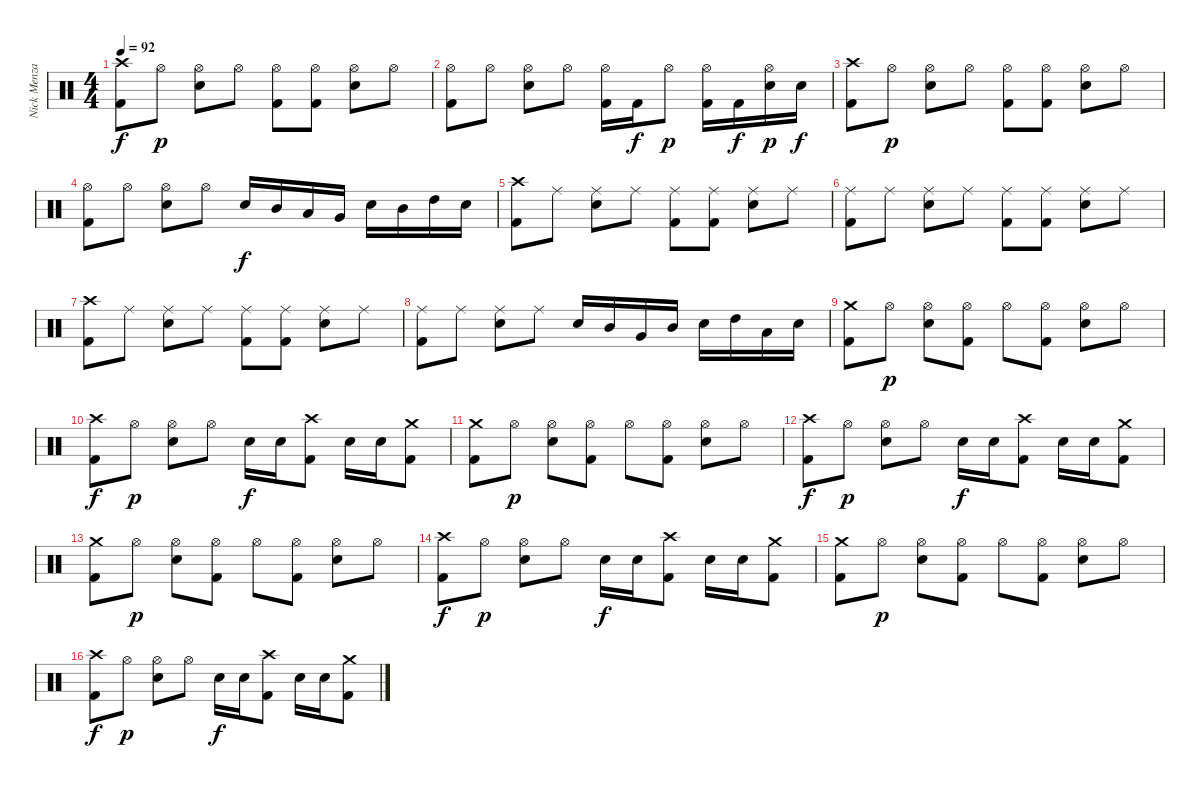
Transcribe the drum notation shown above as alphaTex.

\track ("Nick Menza" "Nick Menza") {instrument percussion}
\staff {score}
\articulation defaults
\ts (4 4)
\tempo 92
\clef neutral
\ks c
("Crash high (hit)" "Kick (hit) 2").8{dy f} "Hi-Hat (open)".8{dy p} ("Hi-Hat (open)" "Electric Snare (hit)").8 "Hi-Hat (open)".8 ("Hi-Hat (open)" "Kick (hit) 2").8 ("Hi-Hat (open)" "Kick (hit) 2").8 ("Hi-Hat (open)" "Electric Snare (hit)").8 "Hi-Hat (open)".8 |
("Hi-Hat (open)" "Kick (hit) 2").8 "Hi-Hat (open)".8 ("Hi-Hat (open)" "Electric Snare (hit)").8 "Hi-Hat (open)".8 ("Hi-Hat (open)" "Kick (hit) 2").16 "Kick (hit) 2".16{dy f} "Hi-Hat (open)".8{dy p} ("Hi-Hat (open)" "Kick (hit) 2").16 "Kick (hit) 2".16{dy f} ("Hi-Hat (open)" "Electric Snare (hit)").16{dy p} "Electric Snare (hit)".16{dy f} |
("Crash high (hit)" "Kick (hit) 2").8 "Hi-Hat (open)".8{dy p} ("Hi-Hat (open)" "Electric Snare (hit)").8 "Hi-Hat (open)".8 ("Hi-Hat (open)" "Kick (hit) 2").8 ("Hi-Hat (open)" "Kick (hit) 2").8 ("Hi-Hat (open)" "Electric Snare (hit)").8 "Hi-Hat (open)".8 |
("Hi-Hat (open)" "Kick (hit) 2").8 "Hi-Hat (open)".8 ("Hi-Hat (open)" "Electric Snare (hit)").8 "Hi-Hat (open)".8 "Electric Snare (hit)".16{dy f} "Mid Tom (hit)".16 "Low Tom (hit)".16 "Very Low Tom (hit)".16 "Electric Snare (hit)".16 "Mid Tom (hit)".16 "High Tom (hit)".16 "Electric Snare (hit)".16 |
("Crash high (hit)" "Kick (hit) 2").8 "Ride (middle)".8 ("Ride (middle)" "Electric Snare (hit)").8 "Ride (middle)".8 ("Ride (middle)" "Kick (hit) 2").8 ("Ride (middle)" "Kick (hit) 2").8 ("Ride (middle)" "Electric Snare (hit)").8 "Ride (middle)".8 |
("Ride (middle)" "Kick (hit) 2").8 "Ride (middle)".8 ("Ride (middle)" "Electric Snare (hit)").8 "Ride (middle)".8 ("Ride (middle)" "Kick (hit) 2").8 ("Ride (middle)" "Kick (hit) 2").8 ("Ride (middle)" "Electric Snare (hit)").8 "Ride (middle)".8 |
("Crash high (hit)" "Kick (hit) 2").8 "Ride (middle)".8 ("Ride (middle)" "Electric Snare (hit)").8 "Ride (middle)".8 ("Ride (middle)" "Kick (hit) 2").8 ("Ride (middle)" "Kick (hit) 2").8 ("Ride (middle)" "Electric Snare (hit)").8 "Ride (middle)".8 |
("Ride (middle)" "Kick (hit) 2").8 "Ride (middle)".8 ("Ride (middle)" "Electric Snare (hit)").8 "Ride (middle)".8 "Electric Snare (hit)".16 "Mid Tom (hit)".16 "Very Low Tom (hit)".16 "Mid Tom (hit)".16 "Electric Snare (hit)".16 "High Tom (hit)".16 "Low Tom (hit)".16 "Electric Snare (hit)".16 |
("Crash medium (hit)" "Kick (hit) 2").8 "Hi-Hat (open)".8{dy p} ("Hi-Hat (open)" "Electric Snare (hit)").8 ("Hi-Hat (open)" "Kick (hit) 2").8 "Hi-Hat (open)".8 ("Hi-Hat (open)" "Kick (hit) 2").8 ("Hi-Hat (open)" "Electric Snare (hit)").8 "Hi-Hat (open)".8 |
("Crash high (hit)" "Kick (hit) 2").8{dy f} "Hi-Hat (open)".8{dy p} ("Hi-Hat (open)" "Electric Snare (hit)").8 "Hi-Hat (open)".8 "Electric Snare (hit)".16{dy f} "Electric Snare (hit)".16 ("Crash high (hit)" "Kick (hit) 2").8 "Electric Snare (hit)".16 "Electric Snare (hit)".16 ("Crash medium (hit)" "Kick (hit) 2").8 |
("Crash medium (hit)" "Kick (hit) 2").8 "Hi-Hat (open)".8{dy p} ("Hi-Hat (open)" "Electric Snare (hit)").8 ("Hi-Hat (open)" "Kick (hit) 2").8 "Hi-Hat (open)".8 ("Hi-Hat (open)" "Kick (hit) 2").8 ("Hi-Hat (open)" "Electric Snare (hit)").8 "Hi-Hat (open)".8 |
("Crash high (hit)" "Kick (hit) 2").8{dy f} "Hi-Hat (open)".8{dy p} ("Hi-Hat (open)" "Electric Snare (hit)").8 "Hi-Hat (open)".8 "Electric Snare (hit)".16{dy f} "Electric Snare (hit)".16 ("Crash high (hit)" "Kick (hit) 2").8 "Electric Snare (hit)".16 "Electric Snare (hit)".16 ("Crash medium (hit)" "Kick (hit) 2").8 |
("Crash medium (hit)" "Kick (hit) 2").8 "Hi-Hat (open)".8{dy p} ("Hi-Hat (open)" "Electric Snare (hit)").8 ("Hi-Hat (open)" "Kick (hit) 2").8 "Hi-Hat (open)".8 ("Hi-Hat (open)" "Kick (hit) 2").8 ("Hi-Hat (open)" "Electric Snare (hit)").8 "Hi-Hat (open)".8 |
("Crash high (hit)" "Kick (hit) 2").8{dy f} "Hi-Hat (open)".8{dy p} ("Hi-Hat (open)" "Electric Snare (hit)").8 "Hi-Hat (open)".8 "Electric Snare (hit)".16{dy f} "Electric Snare (hit)".16 ("Crash high (hit)" "Kick (hit) 2").8 "Electric Snare (hit)".16 "Electric Snare (hit)".16 ("Crash medium (hit)" "Kick (hit) 2").8 |
("Crash medium (hit)" "Kick (hit) 2").8 "Hi-Hat (open)".8{dy p} ("Hi-Hat (open)" "Electric Snare (hit)").8 ("Hi-Hat (open)" "Kick (hit) 2").8 "Hi-Hat (open)".8 ("Hi-Hat (open)" "Kick (hit) 2").8 ("Hi-Hat (open)" "Electric Snare (hit)").8 "Hi-Hat (open)".8 |
("Crash high (hit)" "Kick (hit) 2").8{dy f} "Hi-Hat (open)".8{dy p} ("Hi-Hat (open)" "Electric Snare (hit)").8 "Hi-Hat (open)".8 "Electric Snare (hit)".16{dy f} "Electric Snare (hit)".16 ("Crash high (hit)" "Kick (hit) 2").8 "Electric Snare (hit)".16 "Electric Snare (hit)".16 ("Crash medium (hit)" "Kick (hit) 2").8
